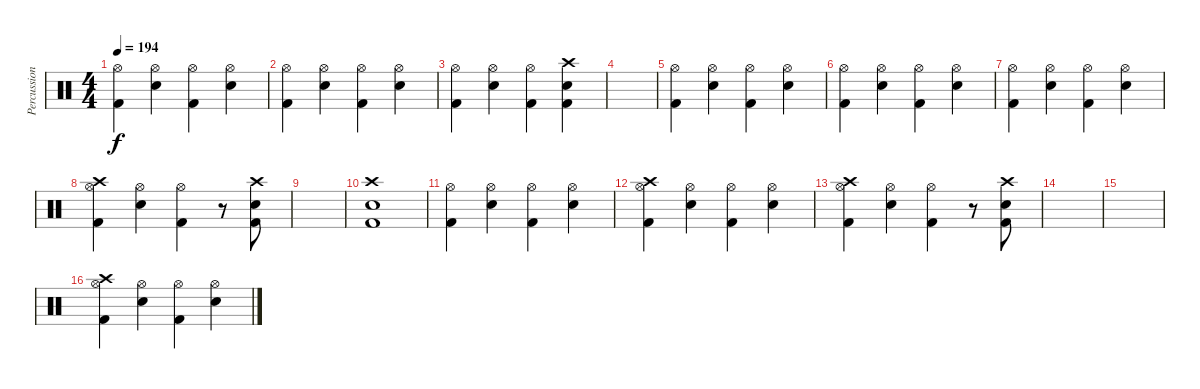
\track ("Percussion" "Percussion") {instrument percussion}
\staff {score}
\articulation defaults
\ts (4 4)
\tempo 194
\clef neutral
\ks c
("Hi-Hat (open)" "Kick (hit) 2").4{dy f} ("Hi-Hat (open)" "Electric Snare (hit)").4 ("Hi-Hat (open)" "Kick (hit) 2").4 ("Hi-Hat (open)" "Electric Snare (hit)").4 |
("Hi-Hat (open)" "Kick (hit) 2").4 ("Hi-Hat (open)" "Electric Snare (hit)").4 ("Hi-Hat (open)" "Kick (hit) 2").4 ("Hi-Hat (open)" "Electric Snare (hit)").4 |
("Hi-Hat (open)" "Kick (hit) 2").4 ("Hi-Hat (open)" "Electric Snare (hit)").4 ("Hi-Hat (open)" "Kick (hit) 2").4 ("Crash high (hit)" "Electric Snare (hit)" "Kick (hit) 2").4 |
|
("Hi-Hat (open)" "Kick (hit) 2").4 ("Hi-Hat (open)" "Electric Snare (hit)").4 ("Hi-Hat (open)" "Kick (hit) 2").4 ("Hi-Hat (open)" "Electric Snare (hit)").4 |
("Hi-Hat (open)" "Kick (hit) 2").4 ("Hi-Hat (open)" "Electric Snare (hit)").4 ("Hi-Hat (open)" "Kick (hit) 2").4 ("Hi-Hat (open)" "Electric Snare (hit)").4 |
("Hi-Hat (open)" "Kick (hit) 2").4 ("Hi-Hat (open)" "Electric Snare (hit)").4 ("Hi-Hat (open)" "Kick (hit) 2").4 ("Hi-Hat (open)" "Electric Snare (hit)").4 |
("Crash high (hit)" "Hi-Hat (open)" "Kick (hit) 2").4 ("Hi-Hat (open)" "Electric Snare (hit)").4 ("Hi-Hat (open)" "Kick (hit) 2").4 r.8 ("Crash high (hit)" "Electric Snare (hit)" "Kick (hit) 2").8 |
|
("Crash high (hit)" "Electric Snare (hit)" "Kick (hit) 2").1 |
("Hi-Hat (open)" "Kick (hit) 2").4 ("Hi-Hat (open)" "Electric Snare (hit)").4 ("Hi-Hat (open)" "Kick (hit) 2").4 ("Hi-Hat (open)" "Electric Snare (hit)").4 |
("Crash high (hit)" "Hi-Hat (open)" "Kick (hit) 2").4 ("Hi-Hat (open)" "Electric Snare (hit)").4 ("Hi-Hat (open)" "Kick (hit) 2").4 ("Hi-Hat (open)" "Electric Snare (hit)").4 |
("Crash high (hit)" "Hi-Hat (open)" "Kick (hit) 2").4 ("Hi-Hat (open)" "Electric Snare (hit)").4 ("Hi-Hat (open)" "Kick (hit) 2").4 r.8 ("Crash high (hit)" "Electric Snare (hit)" "Kick (hit) 2").8 |
|
|
("Crash high (hit)" "Hi-Hat (open)" "Kick (hit) 2").4 ("Hi-Hat (open)" "Electric Snare (hit)").4 ("Hi-Hat (open)" "Kick (hit) 2").4 ("Hi-Hat (open)" "Electric Snare (hit)").4
